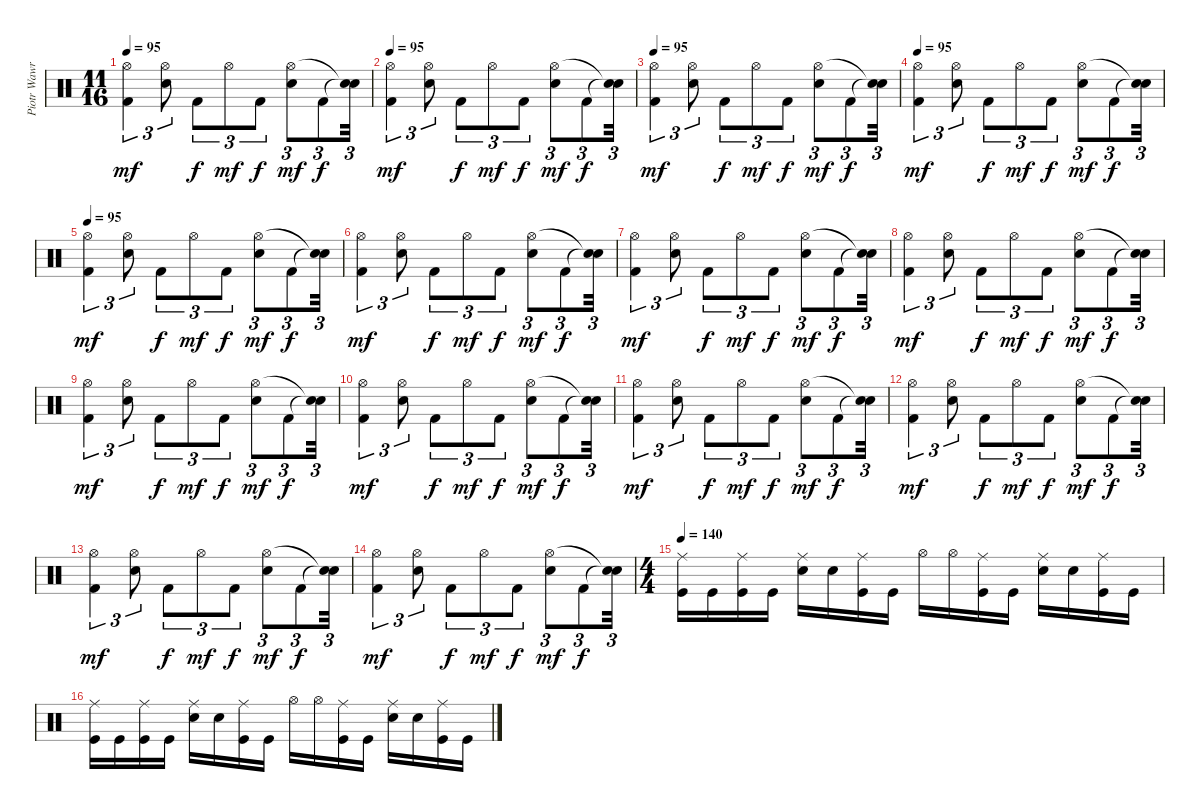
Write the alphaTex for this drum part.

\track ("Piotr Wawrzeniunk (drums)" "Piotr Wawr") {instrument percussion}
\staff {score}
\articulation defaults
\ts (11 16)
\tempo 95
\clef neutral
\ks c
("Kick (hit) 2" "Hi-Hat (open)").4{tu (3 2) dy mf} ("Electric Snare (hit)" "Hi-Hat (open)").8{tu (3 2)} "Kick (hit) 2".8{tu (3 2) dy f} "Hi-Hat (open)".8{tu (3 2) dy mf} "Kick (hit) 2".8{tu (3 2) dy f} ("Electric Snare (hit)" "Hi-Hat (open)").8{tu (3 2) dy mf} "Kick (hit) 2".8{tu (3 2) dy f} ("Snare (hit)"{t} "Snare (hit)"{t}).32{tu (3 2)} |
\tempo 95
("Kick (hit) 2" "Hi-Hat (open)").4{tu (3 2) dy mf} ("Electric Snare (hit)" "Hi-Hat (open)").8{tu (3 2)} "Kick (hit) 2".8{tu (3 2) dy f} "Hi-Hat (open)".8{tu (3 2) dy mf} "Kick (hit) 2".8{tu (3 2) dy f} ("Electric Snare (hit)" "Hi-Hat (open)").8{tu (3 2) dy mf} "Kick (hit) 2".8{tu (3 2) dy f} ("Snare (hit)"{t} "Snare (hit)"{t}).32{tu (3 2)} |
\tempo 95
("Kick (hit) 2" "Hi-Hat (open)").4{tu (3 2) dy mf} ("Electric Snare (hit)" "Hi-Hat (open)").8{tu (3 2)} "Kick (hit) 2".8{tu (3 2) dy f} "Hi-Hat (open)".8{tu (3 2) dy mf} "Kick (hit) 2".8{tu (3 2) dy f} ("Electric Snare (hit)" "Hi-Hat (open)").8{tu (3 2) dy mf} "Kick (hit) 2".8{tu (3 2) dy f} ("Snare (hit)"{t} "Snare (hit)"{t}).32{tu (3 2)} |
\tempo 95
("Kick (hit) 2" "Hi-Hat (open)").4{tu (3 2) dy mf} ("Electric Snare (hit)" "Hi-Hat (open)").8{tu (3 2)} "Kick (hit) 2".8{tu (3 2) dy f} "Hi-Hat (open)".8{tu (3 2) dy mf} "Kick (hit) 2".8{tu (3 2) dy f} ("Electric Snare (hit)" "Hi-Hat (open)").8{tu (3 2) dy mf} "Kick (hit) 2".8{tu (3 2) dy f} ("Snare (hit)"{t} "Snare (hit)"{t}).32{tu (3 2)} |
\tempo 95
("Kick (hit) 2" "Hi-Hat (open)").4{tu (3 2) dy mf} ("Electric Snare (hit)" "Hi-Hat (open)").8{tu (3 2)} "Kick (hit) 2".8{tu (3 2) dy f} "Hi-Hat (open)".8{tu (3 2) dy mf} "Kick (hit) 2".8{tu (3 2) dy f} ("Electric Snare (hit)" "Hi-Hat (open)").8{tu (3 2) dy mf} "Kick (hit) 2".8{tu (3 2) dy f} ("Snare (hit)"{t} "Snare (hit)"{t}).32{tu (3 2)} |
("Kick (hit) 2" "Hi-Hat (open)").4{tu (3 2) dy mf} ("Electric Snare (hit)" "Hi-Hat (open)").8{tu (3 2)} "Kick (hit) 2".8{tu (3 2) dy f} "Hi-Hat (open)".8{tu (3 2) dy mf} "Kick (hit) 2".8{tu (3 2) dy f} ("Electric Snare (hit)" "Hi-Hat (open)").8{tu (3 2) dy mf} "Kick (hit) 2".8{tu (3 2) dy f} ("Snare (hit)"{t} "Snare (hit)"{t}).32{tu (3 2)} |
("Kick (hit) 2" "Hi-Hat (open)").4{tu (3 2) dy mf} ("Electric Snare (hit)" "Hi-Hat (open)").8{tu (3 2)} "Kick (hit) 2".8{tu (3 2) dy f} "Hi-Hat (open)".8{tu (3 2) dy mf} "Kick (hit) 2".8{tu (3 2) dy f} ("Electric Snare (hit)" "Hi-Hat (open)").8{tu (3 2) dy mf} "Kick (hit) 2".8{tu (3 2) dy f} ("Snare (hit)"{t} "Snare (hit)"{t}).32{tu (3 2)} |
("Kick (hit) 2" "Hi-Hat (open)").4{tu (3 2) dy mf} ("Electric Snare (hit)" "Hi-Hat (open)").8{tu (3 2)} "Kick (hit) 2".8{tu (3 2) dy f} "Hi-Hat (open)".8{tu (3 2) dy mf} "Kick (hit) 2".8{tu (3 2) dy f} ("Electric Snare (hit)" "Hi-Hat (open)").8{tu (3 2) dy mf} "Kick (hit) 2".8{tu (3 2) dy f} ("Snare (hit)"{t} "Snare (hit)"{t}).32{tu (3 2)} |
("Kick (hit) 2" "Hi-Hat (open)").4{tu (3 2) dy mf} ("Electric Snare (hit)" "Hi-Hat (open)").8{tu (3 2)} "Kick (hit) 2".8{tu (3 2) dy f} "Hi-Hat (open)".8{tu (3 2) dy mf} "Kick (hit) 2".8{tu (3 2) dy f} ("Electric Snare (hit)" "Hi-Hat (open)").8{tu (3 2) dy mf} "Kick (hit) 2".8{tu (3 2) dy f} ("Snare (hit)"{t} "Snare (hit)"{t}).32{tu (3 2)} |
("Kick (hit) 2" "Hi-Hat (open)").4{tu (3 2) dy mf} ("Electric Snare (hit)" "Hi-Hat (open)").8{tu (3 2)} "Kick (hit) 2".8{tu (3 2) dy f} "Hi-Hat (open)".8{tu (3 2) dy mf} "Kick (hit) 2".8{tu (3 2) dy f} ("Electric Snare (hit)" "Hi-Hat (open)").8{tu (3 2) dy mf} "Kick (hit) 2".8{tu (3 2) dy f} ("Snare (hit)"{t} "Snare (hit)"{t}).32{tu (3 2)} |
("Kick (hit) 2" "Hi-Hat (open)").4{tu (3 2) dy mf} ("Electric Snare (hit)" "Hi-Hat (open)").8{tu (3 2)} "Kick (hit) 2".8{tu (3 2) dy f} "Hi-Hat (open)".8{tu (3 2) dy mf} "Kick (hit) 2".8{tu (3 2) dy f} ("Electric Snare (hit)" "Hi-Hat (open)").8{tu (3 2) dy mf} "Kick (hit) 2".8{tu (3 2) dy f} ("Snare (hit)"{t} "Snare (hit)"{t}).32{tu (3 2)} |
("Kick (hit) 2" "Hi-Hat (open)").4{tu (3 2) dy mf} ("Electric Snare (hit)" "Hi-Hat (open)").8{tu (3 2)} "Kick (hit) 2".8{tu (3 2) dy f} "Hi-Hat (open)".8{tu (3 2) dy mf} "Kick (hit) 2".8{tu (3 2) dy f} ("Electric Snare (hit)" "Hi-Hat (open)").8{tu (3 2) dy mf} "Kick (hit) 2".8{tu (3 2) dy f} ("Snare (hit)"{t} "Snare (hit)"{t}).32{tu (3 2)} |
("Kick (hit) 2" "Hi-Hat (open)").4{tu (3 2) dy mf} ("Electric Snare (hit)" "Hi-Hat (open)").8{tu (3 2)} "Kick (hit) 2".8{tu (3 2) dy f} "Hi-Hat (open)".8{tu (3 2) dy mf} "Kick (hit) 2".8{tu (3 2) dy f} ("Electric Snare (hit)" "Hi-Hat (open)").8{tu (3 2) dy mf} "Kick (hit) 2".8{tu (3 2) dy f} ("Snare (hit)"{t} "Snare (hit)"{t}).32{tu (3 2)} |
("Kick (hit) 2" "Hi-Hat (open)").4{tu (3 2) dy mf} ("Electric Snare (hit)" "Hi-Hat (open)").8{tu (3 2)} "Kick (hit) 2".8{tu (3 2) dy f} "Hi-Hat (open)".8{tu (3 2) dy mf} "Kick (hit) 2".8{tu (3 2) dy f} ("Electric Snare (hit)" "Hi-Hat (open)").8{tu (3 2) dy mf} "Kick (hit) 2".8{tu (3 2) dy f} ("Snare (hit)"{t} "Snare (hit)"{t}).32{tu (3 2)} |
\ts (4 4)
\tempo 140
("Kick (hit)" "Ride (middle)").16 "Kick (hit)".16 ("Kick (hit)" "Ride (middle)").16 "Kick (hit)".16 ("Electric Snare (hit)" "Ride (middle)").16 "Electric Snare (hit)".16 ("Kick (hit)" "Ride (middle)").16 "Kick (hit)".16 "Hi-Hat (open)".16 "Hi-Hat (open)".16 ("Kick (hit)" "Ride (middle)").16 "Kick (hit)".16 ("Electric Snare (hit)" "Ride (middle)").16 "Electric Snare (hit)".16 ("Kick (hit)" "Ride (middle)").16 "Kick (hit)".16 |
("Kick (hit)" "Ride (middle)").16 "Kick (hit)".16 ("Kick (hit)" "Ride (middle)").16 "Kick (hit)".16 ("Electric Snare (hit)" "Ride (middle)").16 "Electric Snare (hit)".16 ("Kick (hit)" "Ride (middle)").16 "Kick (hit)".16 "Hi-Hat (open)".16 "Hi-Hat (open)".16 ("Kick (hit)" "Ride (middle)").16 "Kick (hit)".16 ("Electric Snare (hit)" "Ride (middle)").16 "Electric Snare (hit)".16 ("Kick (hit)" "Ride (middle)").16 "Kick (hit)".16
